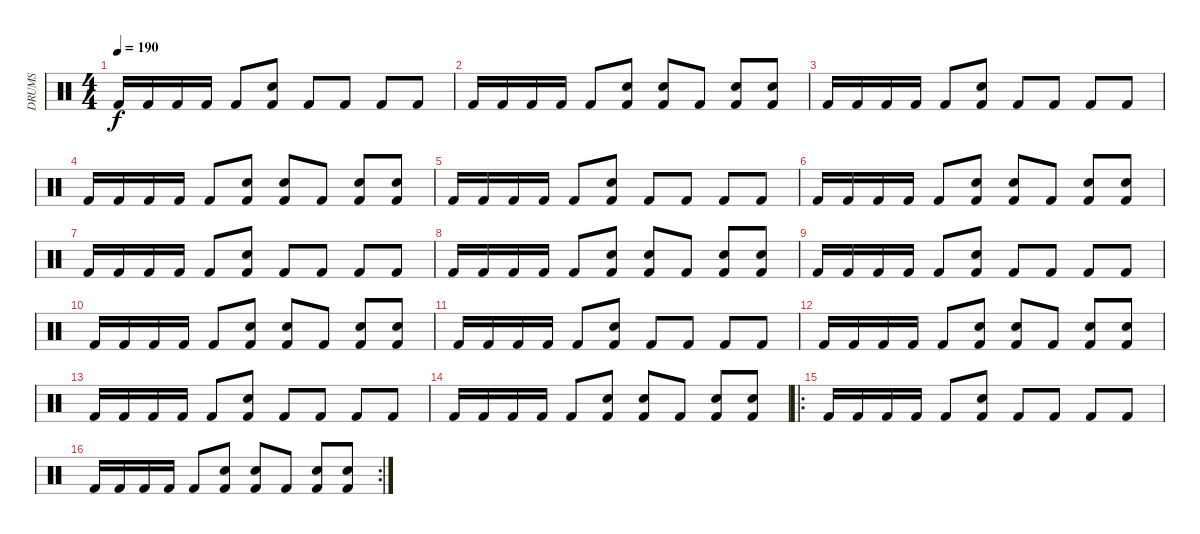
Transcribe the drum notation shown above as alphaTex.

\track ("DRUMS" "DRUMS") {instrument percussion}
\staff {score}
\articulation defaults
\ts (4 4)
\tempo 190
\clef neutral
\ks c "Kick (hit) 2".16{dy f} "Kick (hit) 2".16 "Kick (hit) 2".16 "Kick (hit) 2".16 "Kick (hit) 2".8
("Electric Snare (hit)" "Kick (hit) 2").8 "Kick (hit) 2".8 "Kick (hit) 2".8 "Kick (hit) 2".8 "Kick (hit) 2".8 |
"Kick (hit) 2".16 "Kick (hit) 2".16 "Kick (hit) 2".16 "Kick (hit) 2".16 "Kick (hit) 2".8 ("Electric Snare (hit)" "Kick (hit) 2").8 ("Electric Snare (hit)" "Kick (hit) 2").8 "Kick (hit) 2".8 ("Electric Snare (hit)" "Kick (hit) 2").8 ("Electric Snare (hit)" "Kick (hit) 2").8 |
"Kick (hit) 2".16 "Kick (hit) 2".16 "Kick (hit) 2".16 "Kick (hit) 2".16 "Kick (hit) 2".8 ("Electric Snare (hit)" "Kick (hit) 2").8 "Kick (hit) 2".8 "Kick (hit) 2".8 "Kick (hit) 2".8 "Kick (hit) 2".8 |
"Kick (hit) 2".16 "Kick (hit) 2".16 "Kick (hit) 2".16 "Kick (hit) 2".16 "Kick (hit) 2".8 ("Electric Snare (hit)" "Kick (hit) 2").8 ("Electric Snare (hit)" "Kick (hit) 2").8 "Kick (hit) 2".8 ("Electric Snare (hit)" "Kick (hit) 2").8 ("Electric Snare (hit)" "Kick (hit) 2").8 |
"Kick (hit) 2".16 "Kick (hit) 2".16 "Kick (hit) 2".16 "Kick (hit) 2".16 "Kick (hit) 2".8 ("Electric Snare (hit)" "Kick (hit) 2").8 "Kick (hit) 2".8 "Kick (hit) 2".8 "Kick (hit) 2".8 "Kick (hit) 2".8 |
"Kick (hit) 2".16 "Kick (hit) 2".16 "Kick (hit) 2".16 "Kick (hit) 2".16 "Kick (hit) 2".8 ("Electric Snare (hit)" "Kick (hit) 2").8 ("Electric Snare (hit)" "Kick (hit) 2").8 "Kick (hit) 2".8 ("Electric Snare (hit)" "Kick (hit) 2").8 ("Electric Snare (hit)" "Kick (hit) 2").8 |
"Kick (hit) 2".16 "Kick (hit) 2".16 "Kick (hit) 2".16 "Kick (hit) 2".16 "Kick (hit) 2".8 ("Electric Snare (hit)" "Kick (hit) 2").8 "Kick (hit) 2".8 "Kick (hit) 2".8 "Kick (hit) 2".8 "Kick (hit) 2".8 |
"Kick (hit) 2".16 "Kick (hit) 2".16 "Kick (hit) 2".16 "Kick (hit) 2".16 "Kick (hit) 2".8 ("Electric Snare (hit)" "Kick (hit) 2").8 ("Electric Snare (hit)" "Kick (hit) 2").8 "Kick (hit) 2".8 ("Electric Snare (hit)" "Kick (hit) 2").8 ("Electric Snare (hit)" "Kick (hit) 2").8 |
"Kick (hit) 2".16 "Kick (hit) 2".16 "Kick (hit) 2".16 "Kick (hit) 2".16 "Kick (hit) 2".8 ("Electric Snare (hit)" "Kick (hit) 2").8 "Kick (hit) 2".8 "Kick (hit) 2".8 "Kick (hit) 2".8 "Kick (hit) 2".8 |
"Kick (hit) 2".16 "Kick (hit) 2".16 "Kick (hit) 2".16 "Kick (hit) 2".16 "Kick (hit) 2".8 ("Electric Snare (hit)" "Kick (hit) 2").8 ("Electric Snare (hit)" "Kick (hit) 2").8 "Kick (hit) 2".8 ("Electric Snare (hit)" "Kick (hit) 2").8 ("Electric Snare (hit)" "Kick (hit) 2").8 |
"Kick (hit) 2".16 "Kick (hit) 2".16 "Kick (hit) 2".16 "Kick (hit) 2".16 "Kick (hit) 2".8 ("Electric Snare (hit)" "Kick (hit) 2").8 "Kick (hit) 2".8 "Kick (hit) 2".8 "Kick (hit) 2".8 "Kick (hit) 2".8 |
"Kick (hit) 2".16 "Kick (hit) 2".16 "Kick (hit) 2".16 "Kick (hit) 2".16 "Kick (hit) 2".8 ("Electric Snare (hit)" "Kick (hit) 2").8 ("Electric Snare (hit)" "Kick (hit) 2").8 "Kick (hit) 2".8 ("Electric Snare (hit)" "Kick (hit) 2").8 ("Electric Snare (hit)" "Kick (hit) 2").8 |
"Kick (hit) 2".16 "Kick (hit) 2".16 "Kick (hit) 2".16 "Kick (hit) 2".16 "Kick (hit) 2".8 ("Electric Snare (hit)" "Kick (hit) 2").8 "Kick (hit) 2".8 "Kick (hit) 2".8 "Kick (hit) 2".8 "Kick (hit) 2".8 |
"Kick (hit) 2".16 "Kick (hit) 2".16 "Kick (hit) 2".16 "Kick (hit) 2".16 "Kick (hit) 2".8 ("Electric Snare (hit)" "Kick (hit) 2").8 ("Electric Snare (hit)" "Kick (hit) 2").8 "Kick (hit) 2".8 ("Electric Snare (hit)" "Kick (hit) 2").8 ("Electric Snare (hit)" "Kick (hit) 2").8 |
\ro "Kick (hit) 2".16 "Kick (hit) 2".16 "Kick (hit) 2".16 "Kick (hit) 2".16 "Kick (hit) 2".8
("Electric Snare (hit)" "Kick (hit) 2").8 "Kick (hit) 2".8 "Kick (hit) 2".8 "Kick (hit) 2".8 "Kick (hit) 2".8 |
\rc 2 "Kick (hit) 2".16 "Kick (hit) 2".16 "Kick (hit) 2".16 "Kick (hit) 2".16 "Kick (hit) 2".8
("Electric Snare (hit)" "Kick (hit) 2").8 ("Electric Snare (hit)" "Kick (hit) 2").8 "Kick (hit) 2".8 ("Electric Snare (hit)" "Kick (hit) 2").8 ("Electric Snare (hit)" "Kick (hit) 2").8
